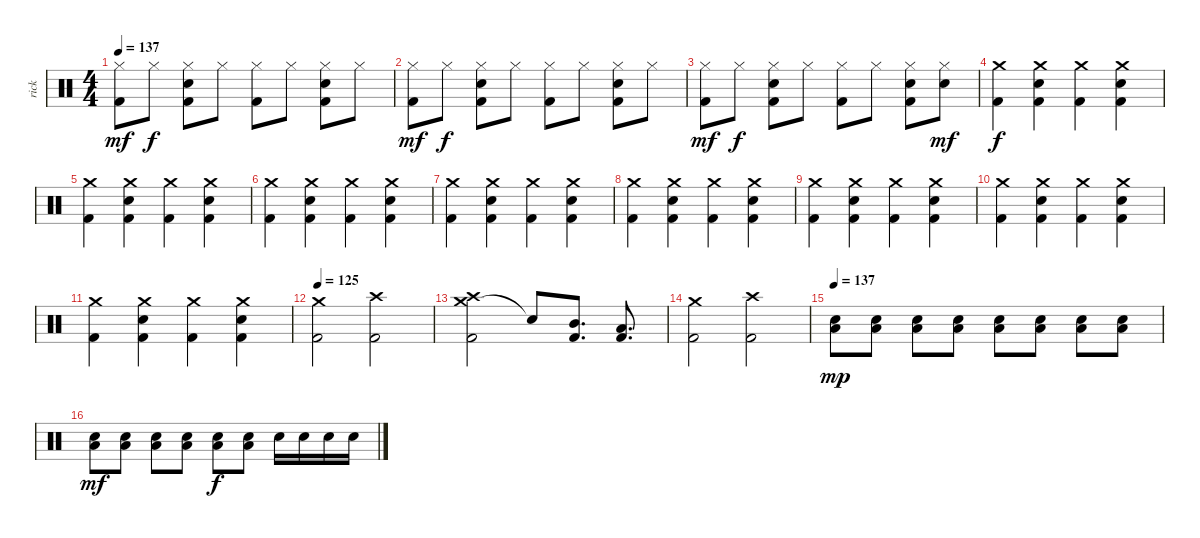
\track ("rick" "rick") {instrument percussion}
\staff {score}
\articulation defaults
\ts (4 4)
\tempo 137
\clef neutral
\ks c
("Hi-Hat (closed)" "Kick (hit) 2").8{dy mf} "Hi-Hat (closed)".8{dy f} ("Hi-Hat (closed)" "Electric Snare (hit)" "Kick (hit) 2").8 "Hi-Hat (closed)".8 ("Hi-Hat (closed)" "Kick (hit) 2").8 "Hi-Hat (closed)".8 ("Hi-Hat (closed)" "Electric Snare (hit)" "Kick (hit) 2").8 "Hi-Hat (closed)".8 |
("Hi-Hat (closed)" "Kick (hit) 2").8{dy mf} "Hi-Hat (closed)".8{dy f} ("Hi-Hat (closed)" "Electric Snare (hit)" "Kick (hit) 2").8 "Hi-Hat (closed)".8 ("Hi-Hat (closed)" "Kick (hit) 2").8 "Hi-Hat (closed)".8 ("Hi-Hat (closed)" "Electric Snare (hit)" "Kick (hit) 2").8 "Hi-Hat (closed)".8 |
("Hi-Hat (closed)" "Kick (hit) 2").8{dy mf} "Hi-Hat (closed)".8{dy f} ("Hi-Hat (closed)" "Electric Snare (hit)" "Kick (hit) 2").8 "Hi-Hat (closed)".8 ("Hi-Hat (closed)" "Kick (hit) 2").8 "Hi-Hat (closed)".8 ("Hi-Hat (closed)" "Electric Snare (hit)" "Kick (hit) 2").8 ("Hi-Hat (closed)" "Electric Snare (hit)").8{dy mf} |
("Crash medium (hit)" "Kick (hit) 2").4{dy f} ("Crash medium (hit)" "Electric Snare (hit)" "Kick (hit) 2").4 ("Crash medium (hit)" "Kick (hit) 2").4 ("Crash medium (hit)" "Electric Snare (hit)" "Kick (hit) 2").4 |
("Crash medium (hit)" "Kick (hit) 2").4 ("Crash medium (hit)" "Electric Snare (hit)" "Kick (hit) 2").4 ("Crash medium (hit)" "Kick (hit) 2").4 ("Crash medium (hit)" "Electric Snare (hit)" "Kick (hit) 2").4 |
("Crash medium (hit)" "Kick (hit) 2").4 ("Crash medium (hit)" "Electric Snare (hit)" "Kick (hit) 2").4 ("Crash medium (hit)" "Kick (hit) 2").4 ("Crash medium (hit)" "Electric Snare (hit)" "Kick (hit) 2").4 |
("Crash medium (hit)" "Kick (hit) 2").4 ("Crash medium (hit)" "Electric Snare (hit)" "Kick (hit) 2").4 ("Crash medium (hit)" "Kick (hit) 2").4 ("Crash medium (hit)" "Electric Snare (hit)" "Kick (hit) 2").4 |
("Crash medium (hit)" "Kick (hit) 2").4 ("Crash medium (hit)" "Electric Snare (hit)" "Kick (hit) 2").4 ("Crash medium (hit)" "Kick (hit) 2").4 ("Crash medium (hit)" "Electric Snare (hit)" "Kick (hit) 2").4 |
("Crash medium (hit)" "Kick (hit) 2").4 ("Crash medium (hit)" "Electric Snare (hit)" "Kick (hit) 2").4 ("Crash medium (hit)" "Kick (hit) 2").4 ("Crash medium (hit)" "Electric Snare (hit)" "Kick (hit) 2").4 |
("Crash medium (hit)" "Kick (hit) 2").4 ("Crash medium (hit)" "Electric Snare (hit)" "Kick (hit) 2").4 ("Crash medium (hit)" "Kick (hit) 2").4 ("Crash medium (hit)" "Electric Snare (hit)" "Kick (hit) 2").4 |
("Crash medium (hit)" "Kick (hit) 2").4 ("Crash medium (hit)" "Electric Snare (hit)" "Kick (hit) 2").4 ("Crash medium (hit)" "Kick (hit) 2").4 ("Crash medium (hit)" "Electric Snare (hit)" "Kick (hit) 2").4 |
\tempo 125
("Crash medium (hit)" "Kick (hit) 2").2 ("Crash high (hit)" "Kick (hit) 2").2 |
("Crash medium (hit)" "Crash high (hit)" "Kick (hit) 2").2 "Snare (hit)"{t}.8 ("Mid Tom (hit)" "Kick (hit) 2").8{d} ("Low Tom (hit)" "Kick (hit) 2").8{d} |
("Crash medium (hit)" "Kick (hit) 2").2 ("Crash high (hit)" "Kick (hit) 2").2 |
\tempo 137
("Low Tom (hit)" "Electric Snare (hit)").8{dy mp} ("Low Tom (hit)" "Electric Snare (hit)").8 ("Low Tom (hit)" "Electric Snare (hit)").8 ("Low Tom (hit)" "Electric Snare (hit)").8 ("Low Tom (hit)" "Electric Snare (hit)").8 ("Low Tom (hit)" "Electric Snare (hit)").8 ("Low Tom (hit)" "Electric Snare (hit)").8 ("Low Tom (hit)" "Electric Snare (hit)").8 |
("Low Tom (hit)" "Electric Snare (hit)").8{dy mf} ("Low Tom (hit)" "Electric Snare (hit)").8 ("Low Tom (hit)" "Electric Snare (hit)").8 ("Low Tom (hit)" "Electric Snare (hit)").8 ("Low Tom (hit)" "Electric Snare (hit)").8{dy f} ("Low Tom (hit)" "Electric Snare (hit)").8 "Electric Snare (hit)".16 "Electric Snare (hit)".16 "Electric Snare (hit)".16 "Electric Snare (hit)".16
